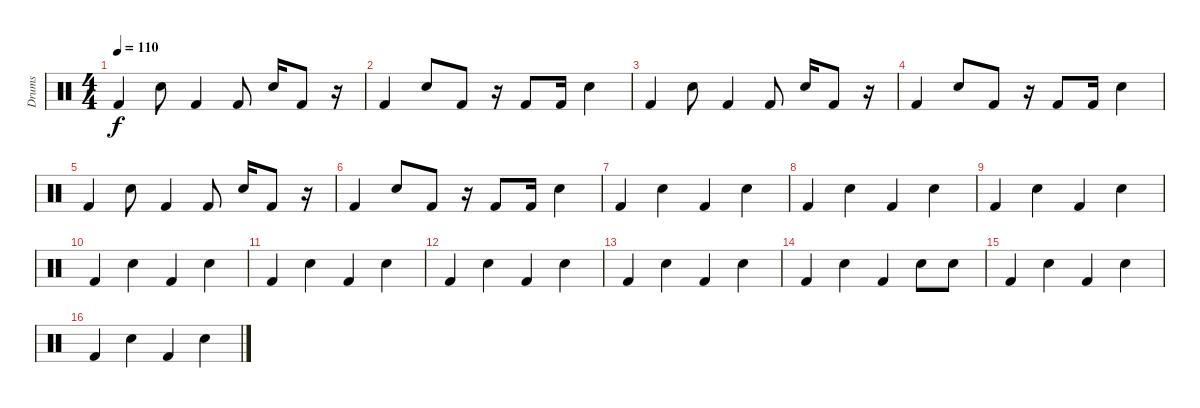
\track ("Drums" "Drums") {instrument percussion}
\staff {score}
\articulation defaults
\ts (4 4)
\tempo 110
\clef neutral
\ks c "Kick (hit) 2".4{dy f} "Electric Snare (hit)".8 "Kick (hit) 2".4 "Kick (hit) 2".8 "Electric Snare (hit)".16 "Kick (hit) 2".8
r.16 |
"Kick (hit) 2".4 "Electric Snare (hit)".8 "Kick (hit) 2".8 r.16 "Kick (hit) 2".8 "Kick (hit) 2".16 "Electric Snare (hit)".4 |
"Kick (hit) 2".4 "Electric Snare (hit)".8 "Kick (hit) 2".4 "Kick (hit) 2".8 "Electric Snare (hit)".16 "Kick (hit) 2".8 r.16 |
"Kick (hit) 2".4 "Electric Snare (hit)".8 "Kick (hit) 2".8 r.16 "Kick (hit) 2".8 "Kick (hit) 2".16 "Electric Snare (hit)".4 |
"Kick (hit) 2".4 "Electric Snare (hit)".8 "Kick (hit) 2".4 "Kick (hit) 2".8 "Electric Snare (hit)".16 "Kick (hit) 2".8 r.16 |
"Kick (hit) 2".4 "Electric Snare (hit)".8 "Kick (hit) 2".8 r.16 "Kick (hit) 2".8 "Kick (hit) 2".16 "Electric Snare (hit)".4 |
"Kick (hit) 2".4 "Electric Snare (hit)".4 "Kick (hit) 2".4 "Electric Snare (hit)".4 |
"Kick (hit) 2".4 "Electric Snare (hit)".4 "Kick (hit) 2".4 "Electric Snare (hit)".4 |
"Kick (hit) 2".4 "Electric Snare (hit)".4 "Kick (hit) 2".4 "Electric Snare (hit)".4 |
"Kick (hit) 2".4 "Electric Snare (hit)".4 "Kick (hit) 2".4 "Electric Snare (hit)".4 |
"Kick (hit) 2".4 "Electric Snare (hit)".4 "Kick (hit) 2".4 "Electric Snare (hit)".4 |
"Kick (hit) 2".4 "Electric Snare (hit)".4 "Kick (hit) 2".4 "Electric Snare (hit)".4 |
"Kick (hit) 2".4 "Electric Snare (hit)".4 "Kick (hit) 2".4 "Electric Snare (hit)".4 |
"Kick (hit) 2".4 "Electric Snare (hit)".4 "Kick (hit) 2".4 "Electric Snare (hit)".8 "Electric Snare (hit)".8 |
"Kick (hit) 2".4 "Electric Snare (hit)".4 "Kick (hit) 2".4 "Electric Snare (hit)".4 |
"Kick (hit) 2".4 "Electric Snare (hit)".4 "Kick (hit) 2".4 "Electric Snare (hit)".4
